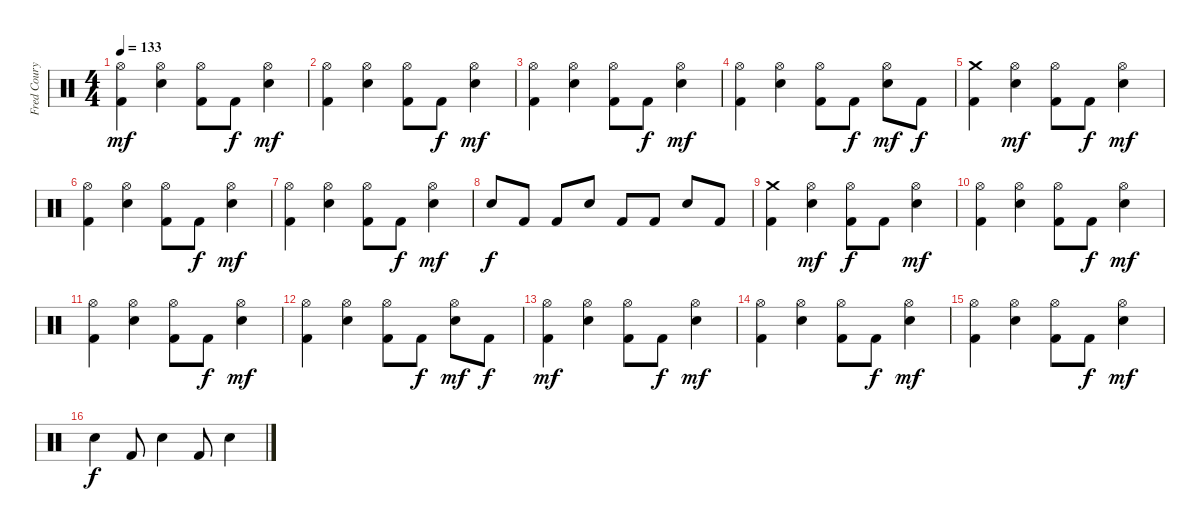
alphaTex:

\track ("Fred Coury" "Fred Coury") {instrument percussion}
\staff {score}
\articulation defaults
\ts (4 4)
\tempo 133
\clef neutral
\ks c
("Kick (hit) 2" "Hi-Hat (open)").4{dy mf} ("Hi-Hat (open)" "Snare (hit) 2").4 ("Kick (hit) 2" "Hi-Hat (open)").8 "Kick (hit) 2".8{dy f} ("Hi-Hat (open)" "Snare (hit) 2").4{dy mf} |
("Kick (hit) 2" "Hi-Hat (open)").4 ("Hi-Hat (open)" "Snare (hit) 2").4 ("Kick (hit) 2" "Hi-Hat (open)").8 "Kick (hit) 2".8{dy f} ("Hi-Hat (open)" "Snare (hit) 2").4{dy mf} |
("Kick (hit) 2" "Hi-Hat (open)").4 ("Hi-Hat (open)" "Snare (hit) 2").4 ("Kick (hit) 2" "Hi-Hat (open)").8 "Kick (hit) 2".8{dy f} ("Hi-Hat (open)" "Snare (hit) 2").4{dy mf} |
("Kick (hit) 2" "Hi-Hat (open)").4 ("Hi-Hat (open)" "Snare (hit) 2").4 ("Kick (hit) 2" "Hi-Hat (open)").8 "Kick (hit) 2".8{dy f} ("Hi-Hat (open)" "Snare (hit) 2").8{dy mf} "Kick (hit) 2".8{dy f} |
("Kick (hit) 2" "Crash medium (hit)").4 ("Hi-Hat (open)" "Snare (hit) 2").4{dy mf} ("Kick (hit) 2" "Hi-Hat (open)").8 "Kick (hit) 2".8{dy f} ("Hi-Hat (open)" "Snare (hit) 2").4{dy mf} |
("Kick (hit) 2" "Hi-Hat (open)").4 ("Hi-Hat (open)" "Snare (hit) 2").4 ("Kick (hit) 2" "Hi-Hat (open)").8 "Kick (hit) 2".8{dy f} ("Hi-Hat (open)" "Snare (hit) 2").4{dy mf} |
("Kick (hit) 2" "Hi-Hat (open)").4 ("Hi-Hat (open)" "Snare (hit) 2").4 ("Kick (hit) 2" "Hi-Hat (open)").8 "Kick (hit) 2".8{dy f} ("Hi-Hat (open)" "Snare (hit) 2").4{dy mf} |
"Snare (hit) 2".8{dy f} "Kick (hit) 2".8 "Kick (hit) 2".8 "Snare (hit) 2".8 "Kick (hit) 2".8 "Kick (hit) 2".8 "Snare (hit) 2".8 "Kick (hit) 2".8 |
("Kick (hit) 2" "Crash medium (hit)").4 ("Hi-Hat (open)" "Snare (hit) 2").4{dy mf} ("Kick (hit) 2" "Hi-Hat (open)").8{dy f} "Kick (hit) 2".8 ("Hi-Hat (open)" "Snare (hit) 2").4{dy mf} |
("Kick (hit) 2" "Hi-Hat (open)").4 ("Hi-Hat (open)" "Snare (hit) 2").4 ("Kick (hit) 2" "Hi-Hat (open)").8 "Kick (hit) 2".8{dy f} ("Hi-Hat (open)" "Snare (hit) 2").4{dy mf} |
("Kick (hit) 2" "Hi-Hat (open)").4 ("Hi-Hat (open)" "Snare (hit) 2").4 ("Kick (hit) 2" "Hi-Hat (open)").8 "Kick (hit) 2".8{dy f} ("Hi-Hat (open)" "Snare (hit) 2").4{dy mf} |
("Kick (hit) 2" "Hi-Hat (open)").4 ("Hi-Hat (open)" "Snare (hit) 2").4 ("Kick (hit) 2" "Hi-Hat (open)").8 "Kick (hit) 2".8{dy f} ("Hi-Hat (open)" "Snare (hit) 2").8{dy mf} "Kick (hit) 2".8{dy f} |
("Kick (hit) 2" "Hi-Hat (open)").4{dy mf} ("Hi-Hat (open)" "Snare (hit) 2").4 ("Kick (hit) 2" "Hi-Hat (open)").8 "Kick (hit) 2".8{dy f} ("Hi-Hat (open)" "Snare (hit) 2").4{dy mf} |
("Kick (hit) 2" "Hi-Hat (open)").4 ("Hi-Hat (open)" "Snare (hit) 2").4 ("Kick (hit) 2" "Hi-Hat (open)").8 "Kick (hit) 2".8{dy f} ("Hi-Hat (open)" "Snare (hit) 2").4{dy mf} |
("Kick (hit) 2" "Hi-Hat (open)").4 ("Hi-Hat (open)" "Snare (hit) 2").4 ("Kick (hit) 2" "Hi-Hat (open)").8 "Kick (hit) 2".8{dy f} ("Hi-Hat (open)" "Snare (hit) 2").4{dy mf} |
"Snare (hit) 2".4{dy f} "Kick (hit) 2".8 "Snare (hit) 2".4 "Kick (hit) 2".8 "Snare (hit) 2".4
